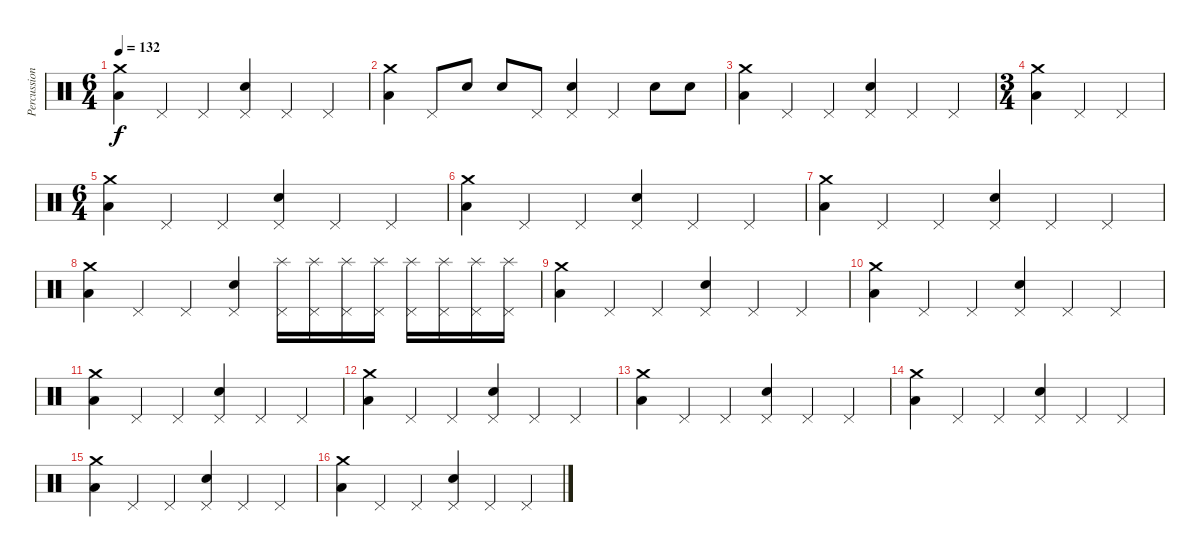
\track ("Percussion" "Percussion") {instrument percussion}
\staff {score}
\articulation defaults
\ts (6 4)
\tempo 132
\clef neutral
\ks c
("Crash medium (hit)" "Low Floor Tom (hit)").4{dy f} "Pedal Hi-Hat (hit)".4 "Pedal Hi-Hat (hit)".4 ("Pedal Hi-Hat (hit)" "Snare (hit) 2").4 "Pedal Hi-Hat (hit)".4 "Pedal Hi-Hat (hit)".4 |
("Crash medium (hit)" "Low Floor Tom (hit)").4 "Pedal Hi-Hat (hit)".8 "Snare (hit) 2".8 "Snare (hit) 2".8 "Pedal Hi-Hat (hit)".8 ("Pedal Hi-Hat (hit)" "Snare (hit) 2").4 "Pedal Hi-Hat (hit)".4 "Snare (hit) 2".8 "Snare (hit) 2".8 |
("Crash medium (hit)" "Low Floor Tom (hit)").4 "Pedal Hi-Hat (hit)".4 "Pedal Hi-Hat (hit)".4 ("Pedal Hi-Hat (hit)" "Snare (hit) 2").4 "Pedal Hi-Hat (hit)".4 "Pedal Hi-Hat (hit)".4 |
\ts (3 4)
("Crash medium (hit)" "Low Floor Tom (hit)").4 "Pedal Hi-Hat (hit)".4 "Pedal Hi-Hat (hit)".4 |
\ts (6 4)
("Crash medium (hit)" "Low Floor Tom (hit)").4 "Pedal Hi-Hat (hit)".4 "Pedal Hi-Hat (hit)".4 ("Pedal Hi-Hat (hit)" "Snare (hit) 2").4 "Pedal Hi-Hat (hit)".4 "Pedal Hi-Hat (hit)".4 |
("Crash medium (hit)" "Low Floor Tom (hit)").4 "Pedal Hi-Hat (hit)".4 "Pedal Hi-Hat (hit)".4 ("Pedal Hi-Hat (hit)" "Snare (hit) 2").4 "Pedal Hi-Hat (hit)".4 "Pedal Hi-Hat (hit)".4 |
("Crash medium (hit)" "Low Floor Tom (hit)").4 "Pedal Hi-Hat (hit)".4 "Pedal Hi-Hat (hit)".4 ("Pedal Hi-Hat (hit)" "Snare (hit) 2").4 "Pedal Hi-Hat (hit)".4 "Pedal Hi-Hat (hit)".4 |
("Crash medium (hit)" "Low Floor Tom (hit)").4 "Pedal Hi-Hat (hit)".4 "Pedal Hi-Hat (hit)".4 ("Pedal Hi-Hat (hit)" "Snare (hit) 2").4 ("Pedal Hi-Hat (hit)" "Splash (hit)").16 ("Pedal Hi-Hat (hit)" "Splash (hit)").16 ("Pedal Hi-Hat (hit)" "Splash (hit)").16 ("Pedal Hi-Hat (hit)" "Splash (hit)").16 ("Pedal Hi-Hat (hit)" "Splash (hit)").16 ("Pedal Hi-Hat (hit)" "Splash (hit)").16 ("Pedal Hi-Hat (hit)" "Splash (hit)").16 ("Pedal Hi-Hat (hit)" "Splash (hit)").16 |
("Crash medium (hit)" "Low Floor Tom (hit)").4 "Pedal Hi-Hat (hit)".4 "Pedal Hi-Hat (hit)".4 ("Pedal Hi-Hat (hit)" "Snare (hit) 2").4 "Pedal Hi-Hat (hit)".4 "Pedal Hi-Hat (hit)".4 |
("Crash medium (hit)" "Low Floor Tom (hit)").4 "Pedal Hi-Hat (hit)".4 "Pedal Hi-Hat (hit)".4 ("Pedal Hi-Hat (hit)" "Snare (hit) 2").4 "Pedal Hi-Hat (hit)".4 "Pedal Hi-Hat (hit)".4 |
("Crash medium (hit)" "Low Floor Tom (hit)").4 "Pedal Hi-Hat (hit)".4 "Pedal Hi-Hat (hit)".4 ("Pedal Hi-Hat (hit)" "Snare (hit) 2").4 "Pedal Hi-Hat (hit)".4 "Pedal Hi-Hat (hit)".4 |
("Crash medium (hit)" "Low Floor Tom (hit)").4 "Pedal Hi-Hat (hit)".4 "Pedal Hi-Hat (hit)".4 ("Pedal Hi-Hat (hit)" "Snare (hit) 2").4 "Pedal Hi-Hat (hit)".4 "Pedal Hi-Hat (hit)".4 |
("Crash medium (hit)" "Low Floor Tom (hit)").4 "Pedal Hi-Hat (hit)".4 "Pedal Hi-Hat (hit)".4 ("Pedal Hi-Hat (hit)" "Snare (hit) 2").4 "Pedal Hi-Hat (hit)".4 "Pedal Hi-Hat (hit)".4 |
("Crash medium (hit)" "Low Floor Tom (hit)").4 "Pedal Hi-Hat (hit)".4 "Pedal Hi-Hat (hit)".4 ("Pedal Hi-Hat (hit)" "Snare (hit) 2").4 "Pedal Hi-Hat (hit)".4 "Pedal Hi-Hat (hit)".4 |
("Crash medium (hit)" "Low Floor Tom (hit)").4 "Pedal Hi-Hat (hit)".4 "Pedal Hi-Hat (hit)".4 ("Pedal Hi-Hat (hit)" "Snare (hit) 2").4 "Pedal Hi-Hat (hit)".4 "Pedal Hi-Hat (hit)".4 |
("Crash medium (hit)" "Low Floor Tom (hit)").4 "Pedal Hi-Hat (hit)".4 "Pedal Hi-Hat (hit)".4 ("Pedal Hi-Hat (hit)" "Snare (hit) 2").4 "Pedal Hi-Hat (hit)".4 "Pedal Hi-Hat (hit)".4
